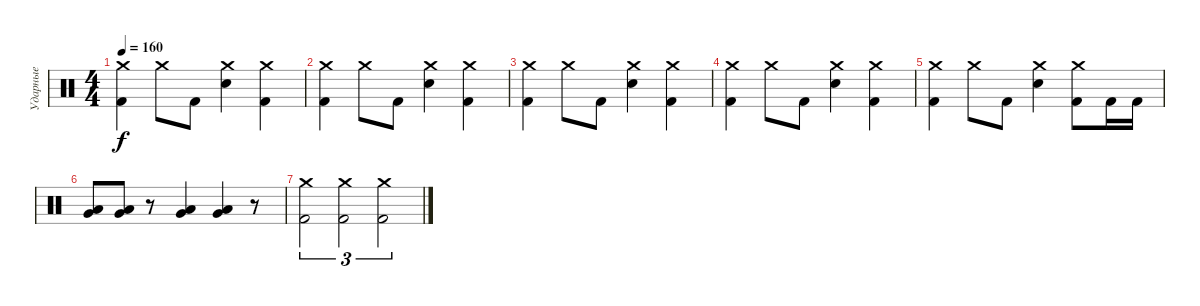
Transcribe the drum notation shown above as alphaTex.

\track ("Ударные" "Ударные") {instrument percussion}
\staff {score}
\articulation defaults
\ts (4 4)
\tempo 160
\clef neutral
\ks c
("Crash medium (hit)" "Kick (hit) 2").4{dy f} "Crash medium (hit)".8 "Kick (hit) 2".8 ("Crash medium (hit)" "Electric Snare (hit)").4 ("Crash medium (hit)" "Kick (hit) 2").4 |
("Crash medium (hit)" "Kick (hit) 2").4 "Crash medium (hit)".8 "Kick (hit) 2".8 ("Crash medium (hit)" "Electric Snare (hit)").4 ("Crash medium (hit)" "Kick (hit) 2").4 |
("Crash medium (hit)" "Kick (hit) 2").4 "Crash medium (hit)".8 "Kick (hit) 2".8 ("Crash medium (hit)" "Electric Snare (hit)").4 ("Crash medium (hit)" "Kick (hit) 2").4 |
("Crash medium (hit)" "Kick (hit) 2").4 "Crash medium (hit)".8 "Kick (hit) 2".8 ("Crash medium (hit)" "Electric Snare (hit)").4 ("Crash medium (hit)" "Kick (hit) 2").4 |
("Crash medium (hit)" "Kick (hit) 2").4 "Crash medium (hit)".8 "Kick (hit) 2".8 ("Crash medium (hit)" "Electric Snare (hit)").4 ("Crash medium (hit)" "Kick (hit) 2").8 "Kick (hit) 2".16 "Kick (hit) 2".16 |
("Very Low Tom (hit)" "Low Floor Tom (hit)").8 ("Very Low Tom (hit)" "Low Floor Tom (hit)").8 r.8 ("Very Low Tom (hit)" "Low Floor Tom (hit)").4 ("Very Low Tom (hit)" "Low Floor Tom (hit)").4 r.8 |
("Crash medium (hit)" "Kick (hit) 2").2{tu (3 2)} ("Crash medium (hit)" "Kick (hit) 2").2{tu (3 2)} ("Crash medium (hit)" "Kick (hit) 2").2{tu (3 2)}
